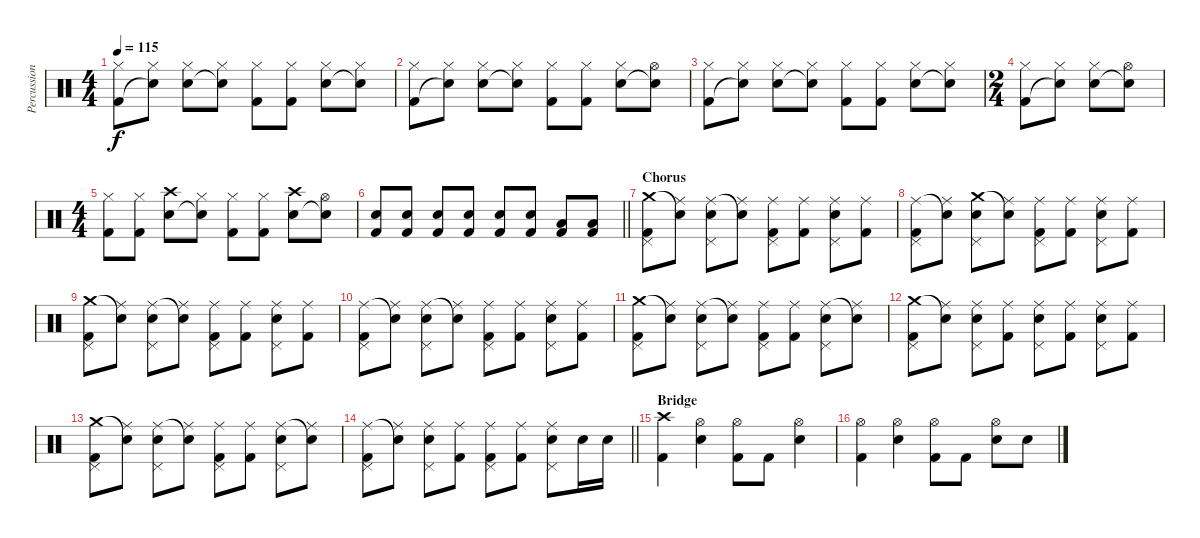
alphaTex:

\track ("Percussioni" "Percussion") {instrument percussion}
\staff {score}
\articulation defaults
\ts (4 4)
\tempo 115
\clef neutral
\ks c
("Hi-Hat (closed)" "Kick (hit) 2").8{dy f} ("Hi-Hat (closed)" "Snare (hit)"{t}).8 ("Hi-Hat (closed)" "Electric Snare (hit)").8 ("Hi-Hat (closed)" "Snare (hit)"{t}).8 ("Hi-Hat (closed)" "Kick (hit) 2").8 ("Hi-Hat (closed)" "Kick (hit) 2").8 ("Hi-Hat (closed)" "Electric Snare (hit)").8 ("Hi-Hat (closed)" "Snare (hit)"{t}).8 |
("Hi-Hat (closed)" "Kick (hit) 2").8 ("Hi-Hat (closed)" "Snare (hit)"{t}).8 ("Hi-Hat (closed)" "Electric Snare (hit)").8 ("Hi-Hat (closed)" "Snare (hit)"{t}).8 ("Hi-Hat (closed)" "Kick (hit) 2").8 ("Hi-Hat (closed)" "Kick (hit) 2").8 ("Hi-Hat (closed)" "Electric Snare (hit)").8 ("Hi-Hat (open)" "Snare (hit)"{t}).8 |
("Hi-Hat (closed)" "Kick (hit) 2").8 ("Hi-Hat (closed)" "Snare (hit)"{t}).8 ("Hi-Hat (closed)" "Electric Snare (hit)").8 ("Hi-Hat (closed)" "Snare (hit)"{t}).8 ("Hi-Hat (closed)" "Kick (hit) 2").8 ("Hi-Hat (closed)" "Kick (hit) 2").8 ("Hi-Hat (closed)" "Electric Snare (hit)").8 ("Hi-Hat (closed)" "Snare (hit)"{t}).8 |
\ts (2 4)
("Hi-Hat (closed)" "Kick (hit) 2").8 ("Hi-Hat (closed)" "Snare (hit)"{t}).8 ("Hi-Hat (closed)" "Electric Snare (hit)").8 ("Hi-Hat (open)" "Snare (hit)"{t}).8 |
\ts (4 4)
("Hi-Hat (closed)" "Kick (hit) 2").8 ("Hi-Hat (closed)" "Kick (hit) 2").8 ("Crash high (hit)" "Electric Snare (hit)").8 ("Hi-Hat (closed)" "Snare (hit)"{t}).8 ("Hi-Hat (closed)" "Kick (hit) 2").8 ("Hi-Hat (closed)" "Kick (hit) 2").8 ("Crash high (hit)" "Electric Snare (hit)").8 ("Hi-Hat (open)" "Snare (hit)"{t}).8 |
\barLineRight lightlight
("Electric Snare (hit)" "Kick (hit) 2").8 ("Electric Snare (hit)" "Kick (hit) 2").8 ("Electric Snare (hit)" "Kick (hit) 2").8 ("Electric Snare (hit)" "Kick (hit) 2").8 ("Electric Snare (hit)" "Kick (hit) 2").8 ("Electric Snare (hit)" "Kick (hit) 2").8 ("Low Tom (hit)" "Kick (hit) 2").8 ("Low Floor Tom (hit)" "Kick (hit) 2").8 |
\section ("" "Chorus")
("Pedal Hi-Hat (hit)" "Crash medium (hit)" "Kick (hit) 2").8 ("Ride (middle)" "Snare (hit)"{t}).8 ("Pedal Hi-Hat (hit)" "Ride (middle)" "Electric Snare (hit)").8 ("Ride (middle)" "Snare (hit)"{t}).8 ("Pedal Hi-Hat (hit)" "Ride (middle)" "Kick (hit) 2").8 ("Ride (middle)" "Kick (hit) 2").8 ("Pedal Hi-Hat (hit)" "Ride (middle)" "Electric Snare (hit)").8 ("Ride (middle)" "Kick (hit) 2").8 |
("Pedal Hi-Hat (hit)" "Ride (middle)" "Kick (hit) 2").8 ("Ride (middle)" "Snare (hit)"{t}).8 ("Pedal Hi-Hat (hit)" "Crash medium (hit)" "Electric Snare (hit)").8 ("Ride (middle)" "Snare (hit)"{t}).8 ("Pedal Hi-Hat (hit)" "Ride (middle)" "Kick (hit) 2").8 ("Ride (middle)" "Kick (hit) 2").8 ("Pedal Hi-Hat (hit)" "Ride (middle)" "Electric Snare (hit)").8 ("Ride (middle)" "Kick (hit) 2").8 |
("Pedal Hi-Hat (hit)" "Crash medium (hit)" "Kick (hit) 2").8 ("Ride (middle)" "Snare (hit)"{t}).8 ("Pedal Hi-Hat (hit)" "Ride (middle)" "Electric Snare (hit)").8 ("Ride (middle)" "Snare (hit)"{t}).8 ("Pedal Hi-Hat (hit)" "Ride (middle)" "Kick (hit) 2").8 ("Ride (middle)" "Kick (hit) 2").8 ("Pedal Hi-Hat (hit)" "Ride (middle)" "Electric Snare (hit)").8 ("Ride (middle)" "Kick (hit) 2").8 |
("Pedal Hi-Hat (hit)" "Ride (middle)" "Kick (hit) 2").8 ("Ride (middle)" "Snare (hit)"{t}).8 ("Pedal Hi-Hat (hit)" "Ride (middle)" "Electric Snare (hit)").8 ("Ride (middle)" "Snare (hit)"{t}).8 ("Pedal Hi-Hat (hit)" "Ride (middle)" "Kick (hit) 2").8 ("Ride (middle)" "Kick (hit) 2").8 ("Pedal Hi-Hat (hit)" "Ride (middle)" "Electric Snare (hit)").8 ("Ride (middle)" "Kick (hit) 2").8 |
("Pedal Hi-Hat (hit)" "Crash medium (hit)" "Kick (hit) 2").8 ("Ride (middle)" "Snare (hit)"{t}).8 ("Pedal Hi-Hat (hit)" "Ride (middle)" "Electric Snare (hit)").8 ("Ride (middle)" "Snare (hit)"{t}).8 ("Pedal Hi-Hat (hit)" "Ride (middle)" "Kick (hit) 2").8 ("Ride (middle)" "Kick (hit) 2").8 ("Pedal Hi-Hat (hit)" "Ride (middle)" "Electric Snare (hit)").8 ("Ride (middle)" "Snare (hit)"{t}).8 |
("Pedal Hi-Hat (hit)" "Crash medium (hit)" "Kick (hit) 2").8 ("Ride (middle)" "Snare (hit)"{t}).8 ("Pedal Hi-Hat (hit)" "Ride (middle)" "Electric Snare (hit)").8 ("Ride (middle)" "Kick (hit) 2").8 ("Pedal Hi-Hat (hit)" "Ride (middle)" "Electric Snare (hit)").8 ("Ride (middle)" "Kick (hit) 2").8 ("Pedal Hi-Hat (hit)" "Ride (middle)" "Electric Snare (hit)").8 ("Ride (middle)" "Kick (hit) 2").8 |
("Pedal Hi-Hat (hit)" "Crash medium (hit)" "Kick (hit) 2").8 ("Ride (middle)" "Snare (hit)"{t}).8 ("Pedal Hi-Hat (hit)" "Ride (middle)" "Electric Snare (hit)").8 ("Ride (middle)" "Snare (hit)"{t}).8 ("Pedal Hi-Hat (hit)" "Ride (middle)" "Kick (hit) 2").8 ("Ride (middle)" "Kick (hit) 2").8 ("Pedal Hi-Hat (hit)" "Ride (middle)" "Electric Snare (hit)").8 ("Ride (middle)" "Snare (hit)"{t}).8 |
\barLineRight lightlight
("Pedal Hi-Hat (hit)" "Ride (middle)" "Kick (hit) 2").8 ("Ride (middle)" "Electric Snare (hit)"{t}).8 ("Pedal Hi-Hat (hit)" "Ride (middle)" "Electric Snare (hit)").8 ("Ride (middle)" "Kick (hit) 2").8 ("Pedal Hi-Hat (hit)" "Ride (middle)" "Kick (hit) 2").8 ("Ride (middle)" "Kick (hit) 2").8 ("Pedal Hi-Hat (hit)" "Ride (middle)" "Electric Snare (hit)").8 "Electric Snare (hit)".16 "Electric Snare (hit)".16 |
\section ("" "Bridge")
("Crash high (hit)" "Kick (hit) 2").4 ("Hi-Hat (open)" "Electric Snare (hit)").4 ("Hi-Hat (open)" "Kick (hit) 2").8 "Kick (hit) 2".8 ("Hi-Hat (open)" "Electric Snare (hit)").4 |
("Hi-Hat (open)" "Kick (hit) 2").4 ("Hi-Hat (open)" "Electric Snare (hit)").4 ("Hi-Hat (open)" "Kick (hit) 2").8 "Kick (hit) 2".8 ("Hi-Hat (open)" "Electric Snare (hit)").8 "Electric Snare (hit)".8
